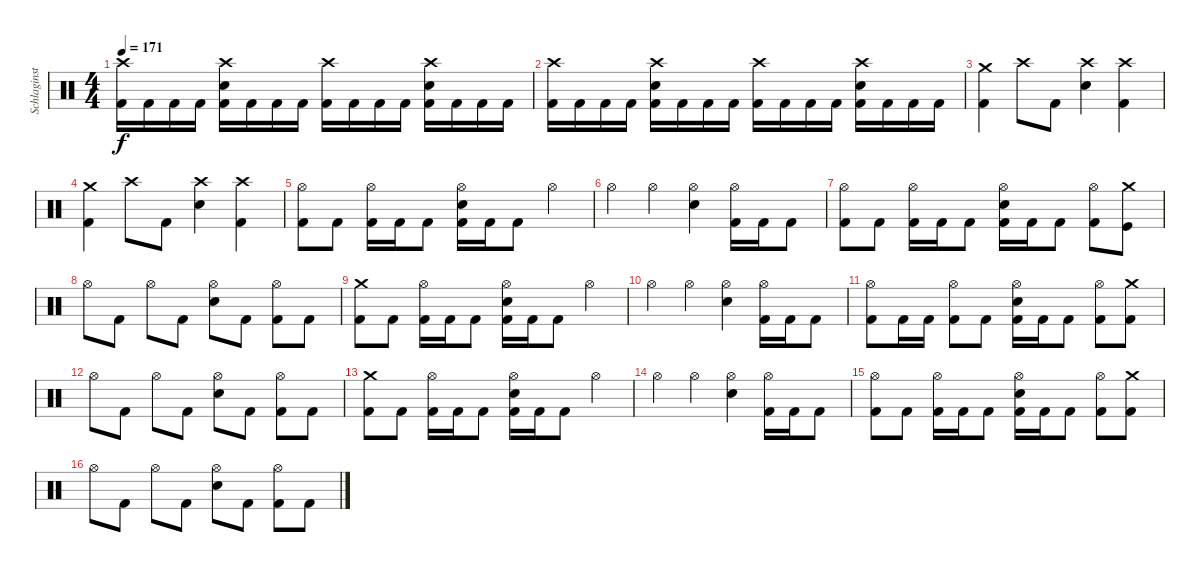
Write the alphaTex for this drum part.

\track ("Schlaginstrumente - Auswahl" "Schlaginst") {instrument percussion}
\staff {score}
\articulation defaults
\ts (4 4)
\tempo 171
\clef neutral
\ks c
("Crash high (hit)" "Kick (hit) 2").16{dy f} "Kick (hit) 2".16 "Kick (hit) 2".16 "Kick (hit) 2".16 ("Crash high (hit)" "Snare (hit) 2" "Kick (hit) 2").16 "Kick (hit) 2".16 "Kick (hit) 2".16 "Kick (hit) 2".16 ("Crash high (hit)" "Kick (hit) 2").16 "Kick (hit) 2".16 "Kick (hit) 2".16 "Kick (hit) 2".16 ("Crash high (hit)" "Snare (hit) 2" "Kick (hit) 2").16 "Kick (hit) 2".16 "Kick (hit) 2".16 "Kick (hit) 2".16 |
("Crash high (hit)" "Kick (hit) 2").16 "Kick (hit) 2".16 "Kick (hit) 2".16 "Kick (hit) 2".16 ("Crash high (hit)" "Snare (hit) 2" "Kick (hit) 2").16 "Kick (hit) 2".16 "Kick (hit) 2".16 "Kick (hit) 2".16 ("Crash high (hit)" "Kick (hit) 2").16 "Kick (hit) 2".16 "Kick (hit) 2".16 "Kick (hit) 2".16 ("Crash high (hit)" "Snare (hit) 2" "Kick (hit) 2").16 "Kick (hit) 2".16 "Kick (hit) 2".16 "Kick (hit) 2".16 |
("Crash medium (hit)" "Kick (hit) 2").4 "Crash high (hit)".8 "Kick (hit) 2".8 ("Crash high (hit)" "Snare (hit) 2").4 ("Crash high (hit)" "Kick (hit) 2").4 |
("Crash medium (hit)" "Kick (hit) 2").4 "Crash high (hit)".8 "Kick (hit) 2".8 ("Crash high (hit)" "Snare (hit) 2").4 ("Crash high (hit)" "Kick (hit) 2").4 |
("Hi-Hat (open)" "Kick (hit) 2").8 "Kick (hit) 2".8 ("Hi-Hat (open)" "Kick (hit) 2").16 "Kick (hit) 2".16 "Kick (hit) 2".8 ("Hi-Hat (open)" "Snare (hit) 2" "Kick (hit) 2").16 "Kick (hit) 2".16 "Kick (hit) 2".8 "Hi-Hat (open)".4 |
"Hi-Hat (open)".4 "Hi-Hat (open)".4 ("Hi-Hat (open)" "Snare (hit) 2").4 ("Hi-Hat (open)" "Kick (hit) 2").16 "Kick (hit) 2".16 "Kick (hit) 2".8 |
("Hi-Hat (open)" "Kick (hit) 2").8 "Kick (hit) 2".8 ("Hi-Hat (open)" "Kick (hit) 2").16 "Kick (hit) 2".16 "Kick (hit) 2".8 ("Hi-Hat (open)" "Snare (hit) 2" "Kick (hit) 2").16 "Kick (hit) 2".16 "Kick (hit) 2".8 ("Hi-Hat (open)" "Kick (hit) 2").8 ("Crash medium (hit)" "Kick (hit)").8 |
"Hi-Hat (open)".8 "Kick (hit) 2".8 "Hi-Hat (open)".8 "Kick (hit) 2".8 ("Hi-Hat (open)" "Snare (hit) 2").8 "Kick (hit) 2".8 ("Hi-Hat (open)" "Kick (hit) 2").8 "Kick (hit) 2".8 |
("Crash medium (hit)" "Kick (hit) 2").8 "Kick (hit) 2".8 ("Hi-Hat (open)" "Kick (hit) 2").16 "Kick (hit) 2".16 "Kick (hit) 2".8 ("Hi-Hat (open)" "Snare (hit) 2" "Kick (hit) 2").16 "Kick (hit) 2".16 "Kick (hit) 2".8 "Hi-Hat (open)".4 |
"Hi-Hat (open)".4 "Hi-Hat (open)".4 ("Hi-Hat (open)" "Snare (hit) 2").4 ("Hi-Hat (open)" "Kick (hit) 2").16 "Kick (hit) 2".16 "Kick (hit) 2".8 |
("Hi-Hat (open)" "Kick (hit) 2").8 "Kick (hit) 2".16 "Kick (hit) 2".16 ("Hi-Hat (open)" "Kick (hit) 2").8 "Kick (hit) 2".8 ("Hi-Hat (open)" "Snare (hit) 2" "Kick (hit) 2").16 "Kick (hit) 2".16 "Kick (hit) 2".8 ("Hi-Hat (open)" "Kick (hit) 2").8 ("Crash medium (hit)" "Kick (hit) 2").8 |
"Hi-Hat (open)".8 "Kick (hit) 2".8 "Hi-Hat (open)".8 "Kick (hit) 2".8 ("Hi-Hat (open)" "Snare (hit) 2").8 "Kick (hit) 2".8 ("Hi-Hat (open)" "Kick (hit) 2").8 "Kick (hit) 2".8 |
("Crash medium (hit)" "Kick (hit) 2").8 "Kick (hit) 2".8 ("Hi-Hat (open)" "Kick (hit) 2").16 "Kick (hit) 2".16 "Kick (hit) 2".8 ("Hi-Hat (open)" "Snare (hit) 2" "Kick (hit) 2").16 "Kick (hit) 2".16 "Kick (hit) 2".8 "Hi-Hat (open)".4 |
"Hi-Hat (open)".4 "Hi-Hat (open)".4 ("Hi-Hat (open)" "Snare (hit) 2").4 ("Hi-Hat (open)" "Kick (hit) 2").16 "Kick (hit) 2".16 "Kick (hit) 2".8 |
("Hi-Hat (open)" "Kick (hit) 2").8 "Kick (hit) 2".8 ("Hi-Hat (open)" "Kick (hit) 2").16 "Kick (hit) 2".16 "Kick (hit) 2".8 ("Hi-Hat (open)" "Snare (hit) 2" "Kick (hit) 2").16 "Kick (hit) 2".16 "Kick (hit) 2".8 ("Hi-Hat (open)" "Kick (hit) 2").8 ("Crash medium (hit)" "Kick (hit) 2").8 |
"Hi-Hat (open)".8 "Kick (hit) 2".8 "Hi-Hat (open)".8 "Kick (hit) 2".8 ("Hi-Hat (open)" "Snare (hit) 2").8 "Kick (hit) 2".8 ("Hi-Hat (open)" "Kick (hit) 2").8 "Kick (hit) 2".8
